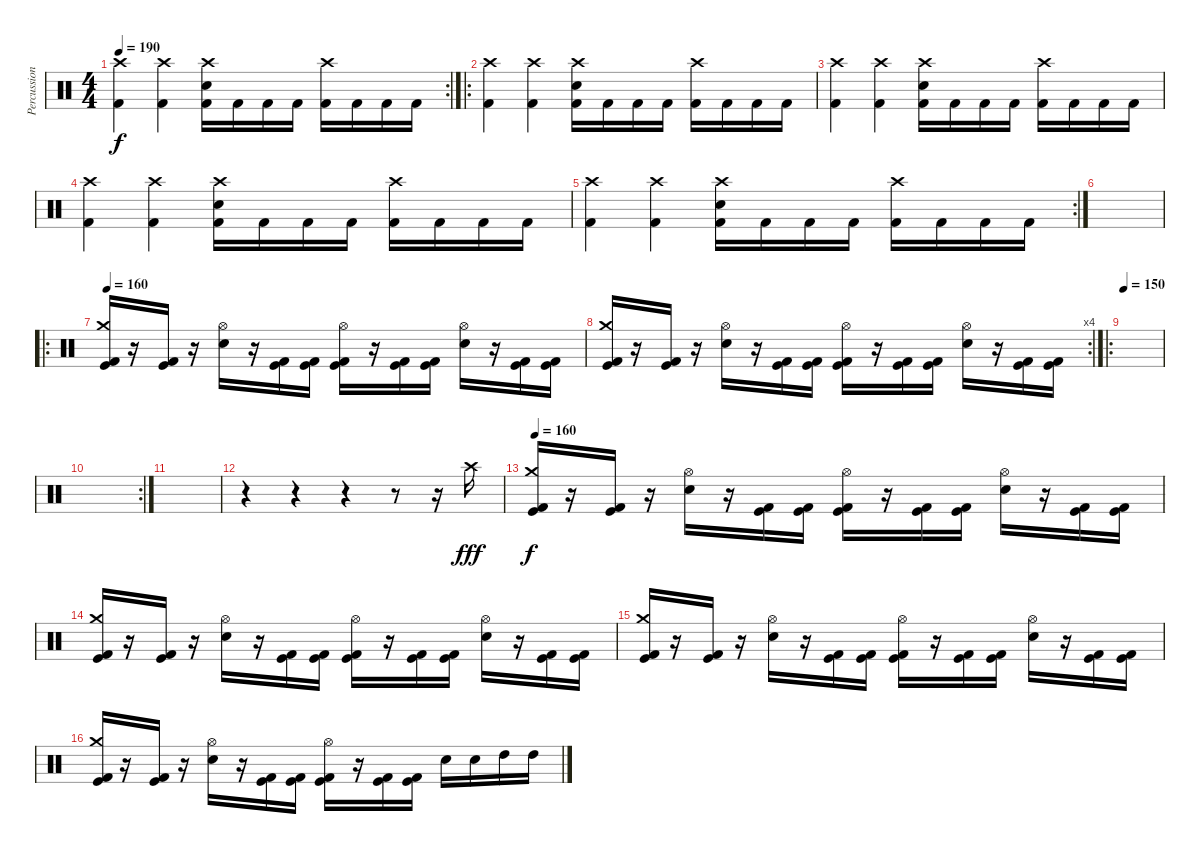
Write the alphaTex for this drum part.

\track ("Percussion" "Percussion") {instrument percussion}
\staff {score}
\articulation defaults
\rc 2
\ts (4 4)
\tempo 190
\clef neutral
\ks c
("Crash high (hit)" "Kick (hit) 2").4{dy f} ("Crash high (hit)" "Kick (hit) 2").4 ("Crash high (hit)" "Snare (hit) 2" "Kick (hit) 2").16 "Kick (hit) 2".16 "Kick (hit) 2".16 "Kick (hit) 2".16 ("Crash high (hit)" "Kick (hit) 2").16 "Kick (hit) 2".16 "Kick (hit) 2".16 "Kick (hit) 2".16 |
\ro
("Crash high (hit)" "Kick (hit) 2").4 ("Crash high (hit)" "Kick (hit) 2").4 ("Crash high (hit)" "Snare (hit) 2" "Kick (hit) 2").16 "Kick (hit) 2".16 "Kick (hit) 2".16 "Kick (hit) 2".16 ("Crash high (hit)" "Kick (hit) 2").16 "Kick (hit) 2".16 "Kick (hit) 2".16 "Kick (hit) 2".16 |
("Crash high (hit)" "Kick (hit) 2").4 ("Crash high (hit)" "Kick (hit) 2").4 ("Crash high (hit)" "Snare (hit) 2" "Kick (hit) 2").16 "Kick (hit) 2".16 "Kick (hit) 2".16 "Kick (hit) 2".16 ("Crash high (hit)" "Kick (hit) 2").16 "Kick (hit) 2".16 "Kick (hit) 2".16 "Kick (hit) 2".16 |
("Crash high (hit)" "Kick (hit) 2").4 ("Crash high (hit)" "Kick (hit) 2").4 ("Crash high (hit)" "Snare (hit) 2" "Kick (hit) 2").16 "Kick (hit) 2".16 "Kick (hit) 2".16 "Kick (hit) 2".16 ("Crash high (hit)" "Kick (hit) 2").16 "Kick (hit) 2".16 "Kick (hit) 2".16 "Kick (hit) 2".16 |
\rc 2
("Crash high (hit)" "Kick (hit) 2").4 ("Crash high (hit)" "Kick (hit) 2").4 ("Crash high (hit)" "Snare (hit) 2" "Kick (hit) 2").16 "Kick (hit) 2".16 "Kick (hit) 2".16 "Kick (hit) 2".16 ("Crash high (hit)" "Kick (hit) 2").16 "Kick (hit) 2".16 "Kick (hit) 2".16 "Kick (hit) 2".16 |
|
\ro
\tempo 160
("Crash medium (hit)" "Kick (hit)" "Kick (hit) 2").16 r.16 ("Kick (hit)" "Kick (hit) 2").16 r.16 ("Hi-Hat (open)" "Electric Snare (hit)").16 r.16 ("Kick (hit)" "Kick (hit) 2").16 ("Kick (hit)" "Kick (hit) 2").16 ("Hi-Hat (open)" "Kick (hit)" "Kick (hit) 2").16 r.16 ("Kick (hit)" "Kick (hit) 2").16 ("Kick (hit)" "Kick (hit) 2").16 ("Hi-Hat (open)" "Electric Snare (hit)").16 r.16 ("Kick (hit)" "Kick (hit) 2").16 ("Kick (hit)" "Kick (hit) 2").16 |
\rc 4
("Crash medium (hit)" "Kick (hit)" "Kick (hit) 2").16 r.16 ("Kick (hit)" "Kick (hit) 2").16 r.16 ("Hi-Hat (open)" "Electric Snare (hit)").16 r.16 ("Kick (hit)" "Kick (hit) 2").16 ("Kick (hit)" "Kick (hit) 2").16 ("Hi-Hat (open)" "Kick (hit)" "Kick (hit) 2").16 r.16 ("Kick (hit)" "Kick (hit) 2").16 ("Kick (hit)" "Kick (hit) 2").16 ("Hi-Hat (open)" "Electric Snare (hit)").16 r.16 ("Kick (hit)" "Kick (hit) 2").16 ("Kick (hit)" "Kick (hit) 2").16 |
\ro
\tempo 150
|
\rc 2
|
|
r.4 r.4 r.4 r.8 r.16 "Crash high (hit)".16{dy fff} |
\tempo 160
("Crash medium (hit)" "Kick (hit)" "Kick (hit) 2").16{dy f} r.16 ("Kick (hit)" "Kick (hit) 2").16 r.16 ("Hi-Hat (open)" "Electric Snare (hit)").16 r.16 ("Kick (hit)" "Kick (hit) 2").16 ("Kick (hit)" "Kick (hit) 2").16 ("Hi-Hat (open)" "Kick (hit)" "Kick (hit) 2").16 r.16 ("Kick (hit)" "Kick (hit) 2").16 ("Kick (hit)" "Kick (hit) 2").16 ("Hi-Hat (open)" "Electric Snare (hit)").16 r.16 ("Kick (hit)" "Kick (hit) 2").16 ("Kick (hit)" "Kick (hit) 2").16 |
("Crash medium (hit)" "Kick (hit)" "Kick (hit) 2").16 r.16 ("Kick (hit)" "Kick (hit) 2").16 r.16 ("Hi-Hat (open)" "Electric Snare (hit)").16 r.16 ("Kick (hit)" "Kick (hit) 2").16 ("Kick (hit)" "Kick (hit) 2").16 ("Hi-Hat (open)" "Kick (hit)" "Kick (hit) 2").16 r.16 ("Kick (hit)" "Kick (hit) 2").16 ("Kick (hit)" "Kick (hit) 2").16 ("Hi-Hat (open)" "Electric Snare (hit)").16 r.16 ("Kick (hit)" "Kick (hit) 2").16 ("Kick (hit)" "Kick (hit) 2").16 |
("Crash medium (hit)" "Kick (hit)" "Kick (hit) 2").16 r.16 ("Kick (hit)" "Kick (hit) 2").16 r.16 ("Hi-Hat (open)" "Electric Snare (hit)").16 r.16 ("Kick (hit)" "Kick (hit) 2").16 ("Kick (hit)" "Kick (hit) 2").16 ("Hi-Hat (open)" "Kick (hit)" "Kick (hit) 2").16 r.16 ("Kick (hit)" "Kick (hit) 2").16 ("Kick (hit)" "Kick (hit) 2").16 ("Hi-Hat (open)" "Electric Snare (hit)").16 r.16 ("Kick (hit)" "Kick (hit) 2").16 ("Kick (hit)" "Kick (hit) 2").16 |
("Crash medium (hit)" "Kick (hit)" "Kick (hit) 2").16 r.16 ("Kick (hit)" "Kick (hit) 2").16 r.16 ("Hi-Hat (open)" "Electric Snare (hit)").16 r.16 ("Kick (hit)" "Kick (hit) 2").16 ("Kick (hit)" "Kick (hit) 2").16 ("Hi-Hat (open)" "Kick (hit)" "Kick (hit) 2").16 r.16 ("Kick (hit)" "Kick (hit) 2").16 ("Kick (hit)" "Kick (hit) 2").16 "Snare (hit) 2".16 "Snare (hit) 2".16 "High Tom (hit)".16 "High Tom (hit)".16
